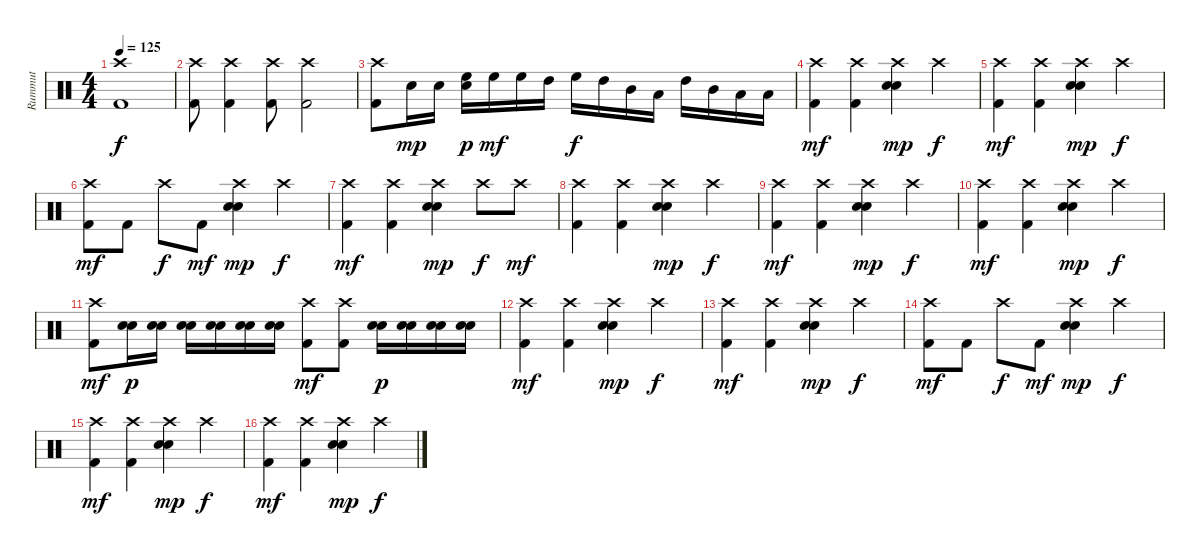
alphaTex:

\track ("Rummut" "Rummut") {instrument percussion}
\staff {score}
\articulation defaults
\ts (4 4)
\tempo 125
\clef neutral
\ks c
("Crash high (hit)" "Kick (hit) 2").1{dy f} |
("Crash high (hit)" "Kick (hit) 2").8 ("Crash high (hit)" "Kick (hit) 2").4 ("Crash high (hit)" "Kick (hit) 2").8 ("Crash high (hit)" "Kick (hit) 2").2 |
("Crash high (hit)" "Kick (hit) 2").8 "Electric Snare (hit)".16{dy mp} "Electric Snare (hit)".16 ("High Floor Tom (hit)" "Electric Snare (hit)").16{dy p} "High Floor Tom (hit)".16{dy mf} "High Floor Tom (hit)".16 "High Tom (hit)".16 "High Floor Tom (hit)".16{dy f} "High Tom (hit)".16 "Mid Tom (hit)".16 "Low Tom (hit)".16 "High Tom (hit)".16 "Mid Tom (hit)".16 "Low Tom (hit)".16 "Low Floor Tom (hit)".16 |
("Crash high (hit)" "Kick (hit) 2").4{dy mf} ("Crash high (hit)" "Kick (hit) 2").4 ("Crash high (hit)" "Electric Snare (hit)" "Snare (hit) 2").4{dy mp} "Crash high (hit)".4{dy f} |
("Crash high (hit)" "Kick (hit) 2").4{dy mf} ("Crash high (hit)" "Kick (hit) 2").4 ("Crash high (hit)" "Electric Snare (hit)" "Snare (hit) 2").4{dy mp} "Crash high (hit)".4{dy f} |
("Crash high (hit)" "Kick (hit) 2").8{dy mf} "Kick (hit) 2".8 "Crash high (hit)".8{dy f} "Kick (hit) 2".8{dy mf} ("Crash high (hit)" "Electric Snare (hit)" "Snare (hit) 2").4{dy mp} "Crash high (hit)".4{dy f} |
("Crash high (hit)" "Kick (hit) 2").4{dy mf} ("Crash high (hit)" "Kick (hit) 2").4 ("Crash high (hit)" "Electric Snare (hit)" "Snare (hit) 2").4{dy mp} "Crash high (hit)".8{dy f} "Crash high (hit)".8{dy mf} |
("Crash high (hit)" "Kick (hit) 2").4 ("Crash high (hit)" "Kick (hit) 2").4 ("Crash high (hit)" "Electric Snare (hit)" "Snare (hit) 2").4{dy mp} "Crash high (hit)".4{dy f} |
("Crash high (hit)" "Kick (hit) 2").4{dy mf} ("Crash high (hit)" "Kick (hit) 2").4 ("Crash high (hit)" "Electric Snare (hit)" "Snare (hit) 2").4{dy mp} "Crash high (hit)".4{dy f} |
("Crash high (hit)" "Kick (hit) 2").4{dy mf} ("Crash high (hit)" "Kick (hit) 2").4 ("Crash high (hit)" "Electric Snare (hit)" "Snare (hit) 2").4{dy mp} "Crash high (hit)".4{dy f} |
("Crash high (hit)" "Kick (hit) 2").8{dy mf} ("Electric Snare (hit)" "Snare (hit) 2").16{dy p} ("Electric Snare (hit)" "Snare (hit) 2").16 ("Electric Snare (hit)" "Snare (hit) 2").16 ("Electric Snare (hit)" "Snare (hit) 2").16 ("Electric Snare (hit)" "Snare (hit) 2").16 ("Electric Snare (hit)" "Snare (hit) 2").16 ("Crash high (hit)" "Kick (hit) 2").8{dy mf} ("Crash high (hit)" "Kick (hit) 2").8 ("Electric Snare (hit)" "Snare (hit) 2").16{dy p} ("Electric Snare (hit)" "Snare (hit) 2").16 ("Electric Snare (hit)" "Snare (hit) 2").16 ("Electric Snare (hit)" "Snare (hit) 2").16 |
("Crash high (hit)" "Kick (hit) 2").4{dy mf} ("Crash high (hit)" "Kick (hit) 2").4 ("Crash high (hit)" "Electric Snare (hit)" "Snare (hit) 2").4{dy mp} "Crash high (hit)".4{dy f} |
("Crash high (hit)" "Kick (hit) 2").4{dy mf} ("Crash high (hit)" "Kick (hit) 2").4 ("Crash high (hit)" "Electric Snare (hit)" "Snare (hit) 2").4{dy mp} "Crash high (hit)".4{dy f} |
("Crash high (hit)" "Kick (hit) 2").8{dy mf} "Kick (hit) 2".8 "Crash high (hit)".8{dy f} "Kick (hit) 2".8{dy mf} ("Crash high (hit)" "Electric Snare (hit)" "Snare (hit) 2").4{dy mp} "Crash high (hit)".4{dy f} |
("Crash high (hit)" "Kick (hit) 2").4{dy mf} ("Crash high (hit)" "Kick (hit) 2").4 ("Crash high (hit)" "Electric Snare (hit)" "Snare (hit) 2").4{dy mp} "Crash high (hit)".4{dy f} |
("Crash high (hit)" "Kick (hit) 2").4{dy mf} ("Crash high (hit)" "Kick (hit) 2").4 ("Crash high (hit)" "Electric Snare (hit)" "Snare (hit) 2").4{dy mp} "Crash high (hit)".4{dy f}
